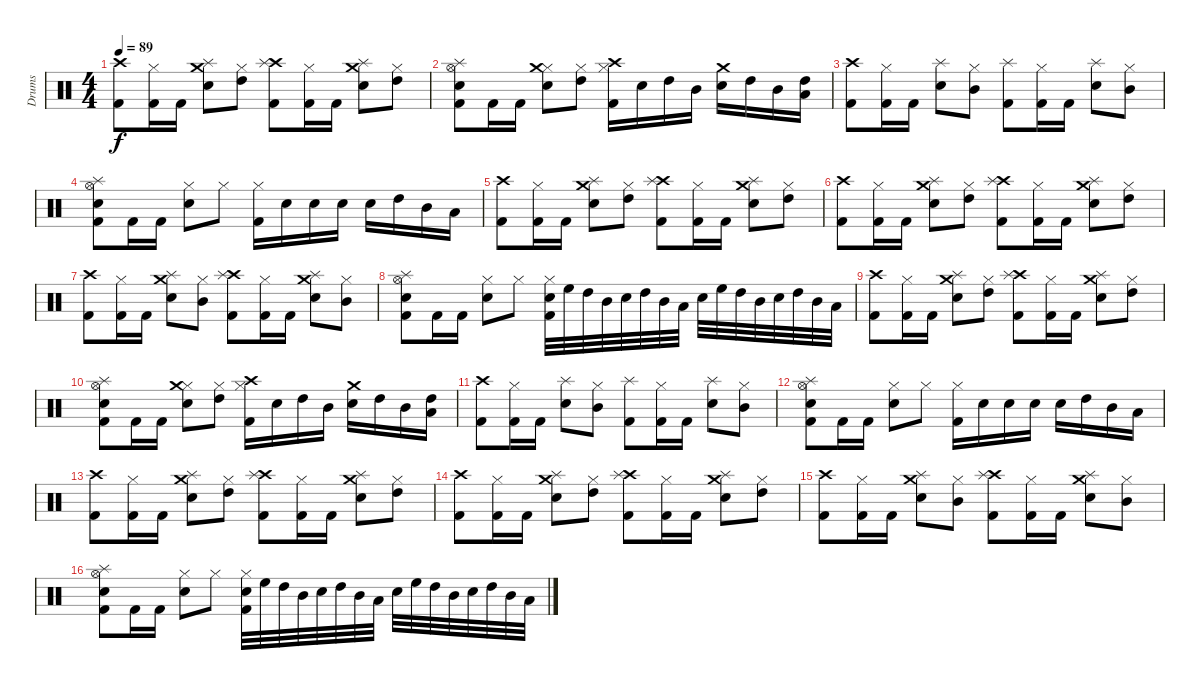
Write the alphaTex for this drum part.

\track ("Drums" "Drums") {instrument percussion}
\staff {score}
\articulation defaults
\ts (4 4)
\tempo 89
\clef neutral
\ks c
("Kick (hit) 2" "Crash high (hit)").8{dy f} ("Kick (hit) 2" "Hi-Hat (closed)").16 "Kick (hit) 2".16 ("Snare (hit) 2" "Crash medium (hit)" "Splash (hit)").8 ("Hi-Hat (closed)" "High Tom (hit)").8 ("Kick (hit) 2" "Crash high (hit)" "Splash (hit)").8 ("Kick (hit) 2" "Hi-Hat (closed)").16 "Kick (hit) 2".16 ("Snare (hit) 2" "Crash medium (hit)" "Splash (hit)").8 ("Hi-Hat (closed)" "High Tom (hit)").8 |
("Kick (hit) 2" "Snare (hit) 2" "Hi-Hat (open)" "Splash (hit)").8 "Kick (hit) 2".16 "Kick (hit) 2".16 ("Snare (hit) 2" "Hi-Hat (closed)" "Crash medium (hit)").8 ("Hi-Hat (closed)" "High Tom (hit)").8 ("Kick (hit) 2" "Hi-Hat (closed)" "Crash high (hit)").16 "Snare (hit) 2".16 "High Tom (hit)".16 "Mid Tom (hit)".16 ("Snare (hit) 2" "Crash medium (hit)").16 "High Tom (hit)".16 "Mid Tom (hit)".16 ("Low Tom (hit)" "High Tom (hit)").16 |
("Kick (hit) 2" "Crash high (hit)").8 ("Kick (hit) 2" "Hi-Hat (closed)").16 "Kick (hit) 2".16 ("Snare (hit) 2" "Splash (hit)").8 ("Hi-Hat (closed)" "Mid Tom (hit)").8 ("Kick (hit) 2" "Splash (hit)").8 ("Kick (hit) 2" "Hi-Hat (closed)").16 "Kick (hit) 2".16 ("Snare (hit) 2" "Splash (hit)").8 ("Hi-Hat (closed)" "Mid Tom (hit)").8 |
("Kick (hit) 2" "Snare (hit) 2" "Hi-Hat (open)" "Splash (hit)").8 "Kick (hit) 2".16 "Kick (hit) 2".16 ("Snare (hit) 2" "Hi-Hat (closed)").8 "Hi-Hat (closed)".8 ("Kick (hit) 2" "Hi-Hat (closed)").16 "Snare (hit) 2".16 "Snare (hit) 2".16 "Snare (hit) 2".16 "Snare (hit) 2".16 "High Tom (hit)".16 "Mid Tom (hit)".16 "Low Tom (hit)".16 |
("Kick (hit) 2" "Crash high (hit)").8 ("Kick (hit) 2" "Hi-Hat (closed)").16 "Kick (hit) 2".16 ("Snare (hit) 2" "Crash medium (hit)" "Splash (hit)").8 ("Hi-Hat (closed)" "High Tom (hit)").8 ("Kick (hit) 2" "Crash high (hit)" "Splash (hit)").8 ("Kick (hit) 2" "Hi-Hat (closed)").16 "Kick (hit) 2".16 ("Snare (hit) 2" "Crash medium (hit)" "Splash (hit)").8 ("Hi-Hat (closed)" "High Tom (hit)").8 |
("Kick (hit) 2" "Crash high (hit)").8 ("Kick (hit) 2" "Hi-Hat (closed)").16 "Kick (hit) 2".16 ("Snare (hit) 2" "Crash medium (hit)" "Splash (hit)").8 ("Hi-Hat (closed)" "High Tom (hit)").8 ("Kick (hit) 2" "Crash high (hit)" "Splash (hit)").8 ("Kick (hit) 2" "Hi-Hat (closed)").16 "Kick (hit) 2".16 ("Snare (hit) 2" "Crash medium (hit)" "Splash (hit)").8 ("Hi-Hat (closed)" "High Tom (hit)").8 |
("Kick (hit) 2" "Crash high (hit)").8 ("Kick (hit) 2" "Hi-Hat (closed)").16 "Kick (hit) 2".16 ("Snare (hit) 2" "Crash medium (hit)" "Splash (hit)").8 ("Hi-Hat (closed)" "Mid Tom (hit)").8 ("Kick (hit) 2" "Crash high (hit)" "Splash (hit)").8 ("Kick (hit) 2" "Hi-Hat (closed)").16 "Kick (hit) 2".16 ("Snare (hit) 2" "Crash medium (hit)" "Splash (hit)").8 ("Hi-Hat (closed)" "Mid Tom (hit)").8 |
("Kick (hit) 2" "Snare (hit) 2" "Hi-Hat (open)" "Splash (hit)").8 "Kick (hit) 2".16 "Kick (hit) 2".16 ("Snare (hit) 2" "Hi-Hat (closed)").8 "Hi-Hat (closed)".8 ("Kick (hit) 2" "Snare (hit) 2" "Hi-Hat (closed)").32 "High Floor Tom (hit)".32 "High Tom (hit)".32 "Mid Tom (hit)".32 "Snare (hit) 2".32 "High Tom (hit)".32 "Mid Tom (hit)".32 "Low Tom (hit)".32 "Snare (hit) 2".32 "High Floor Tom (hit)".32 "High Tom (hit)".32 "Mid Tom (hit)".32 "Snare (hit) 2".32 "High Tom (hit)".32 "Mid Tom (hit)".32 "Low Tom (hit)".32 |
("Kick (hit) 2" "Crash high (hit)").8 ("Kick (hit) 2" "Hi-Hat (closed)").16 "Kick (hit) 2".16 ("Snare (hit) 2" "Crash medium (hit)" "Splash (hit)").8 ("Hi-Hat (closed)" "High Tom (hit)").8 ("Kick (hit) 2" "Crash high (hit)" "Splash (hit)").8 ("Kick (hit) 2" "Hi-Hat (closed)").16 "Kick (hit) 2".16 ("Snare (hit) 2" "Crash medium (hit)" "Splash (hit)").8 ("Hi-Hat (closed)" "High Tom (hit)").8 |
("Kick (hit) 2" "Snare (hit) 2" "Hi-Hat (open)" "Splash (hit)").8 "Kick (hit) 2".16 "Kick (hit) 2".16 ("Snare (hit) 2" "Hi-Hat (closed)" "Crash medium (hit)").8 ("Hi-Hat (closed)" "High Tom (hit)").8 ("Kick (hit) 2" "Hi-Hat (closed)" "Crash high (hit)").16 "Snare (hit) 2".16 "High Tom (hit)".16 "Mid Tom (hit)".16 ("Snare (hit) 2" "Crash medium (hit)").16 "High Tom (hit)".16 "Mid Tom (hit)".16 ("Low Tom (hit)" "High Tom (hit)").16 |
("Kick (hit) 2" "Crash high (hit)").8 ("Kick (hit) 2" "Hi-Hat (closed)").16 "Kick (hit) 2".16 ("Snare (hit) 2" "Splash (hit)").8 ("Hi-Hat (closed)" "Mid Tom (hit)").8 ("Kick (hit) 2" "Splash (hit)").8 ("Kick (hit) 2" "Hi-Hat (closed)").16 "Kick (hit) 2".16 ("Snare (hit) 2" "Splash (hit)").8 ("Hi-Hat (closed)" "Mid Tom (hit)").8 |
("Kick (hit) 2" "Snare (hit) 2" "Hi-Hat (open)" "Splash (hit)").8 "Kick (hit) 2".16 "Kick (hit) 2".16 ("Snare (hit) 2" "Hi-Hat (closed)").8 "Hi-Hat (closed)".8 ("Kick (hit) 2" "Hi-Hat (closed)").16 "Snare (hit) 2".16 "Snare (hit) 2".16 "Snare (hit) 2".16 "Snare (hit) 2".16 "High Tom (hit)".16 "Mid Tom (hit)".16 "Low Tom (hit)".16 |
("Kick (hit) 2" "Crash high (hit)").8 ("Kick (hit) 2" "Hi-Hat (closed)").16 "Kick (hit) 2".16 ("Snare (hit) 2" "Crash medium (hit)" "Splash (hit)").8 ("Hi-Hat (closed)" "High Tom (hit)").8 ("Kick (hit) 2" "Crash high (hit)" "Splash (hit)").8 ("Kick (hit) 2" "Hi-Hat (closed)").16 "Kick (hit) 2".16 ("Snare (hit) 2" "Crash medium (hit)" "Splash (hit)").8 ("Hi-Hat (closed)" "High Tom (hit)").8 |
("Kick (hit) 2" "Crash high (hit)").8 ("Kick (hit) 2" "Hi-Hat (closed)").16 "Kick (hit) 2".16 ("Snare (hit) 2" "Crash medium (hit)" "Splash (hit)").8 ("Hi-Hat (closed)" "High Tom (hit)").8 ("Kick (hit) 2" "Crash high (hit)" "Splash (hit)").8 ("Kick (hit) 2" "Hi-Hat (closed)").16 "Kick (hit) 2".16 ("Snare (hit) 2" "Crash medium (hit)" "Splash (hit)").8 ("Hi-Hat (closed)" "High Tom (hit)").8 |
("Kick (hit) 2" "Crash high (hit)").8 ("Kick (hit) 2" "Hi-Hat (closed)").16 "Kick (hit) 2".16 ("Snare (hit) 2" "Crash medium (hit)" "Splash (hit)").8 ("Hi-Hat (closed)" "Mid Tom (hit)").8 ("Kick (hit) 2" "Crash high (hit)" "Splash (hit)").8 ("Kick (hit) 2" "Hi-Hat (closed)").16 "Kick (hit) 2".16 ("Snare (hit) 2" "Crash medium (hit)" "Splash (hit)").8 ("Hi-Hat (closed)" "Mid Tom (hit)").8 |
("Kick (hit) 2" "Snare (hit) 2" "Hi-Hat (open)" "Splash (hit)").8 "Kick (hit) 2".16 "Kick (hit) 2".16 ("Snare (hit) 2" "Hi-Hat (closed)").8 "Hi-Hat (closed)".8 ("Kick (hit) 2" "Snare (hit) 2" "Hi-Hat (closed)").32 "High Floor Tom (hit)".32 "High Tom (hit)".32 "Mid Tom (hit)".32 "Snare (hit) 2".32 "High Tom (hit)".32 "Mid Tom (hit)".32 "Low Tom (hit)".32 "Snare (hit) 2".32 "High Floor Tom (hit)".32 "High Tom (hit)".32 "Mid Tom (hit)".32 "Snare (hit) 2".32 "High Tom (hit)".32 "Mid Tom (hit)".32 "Low Tom (hit)".32
